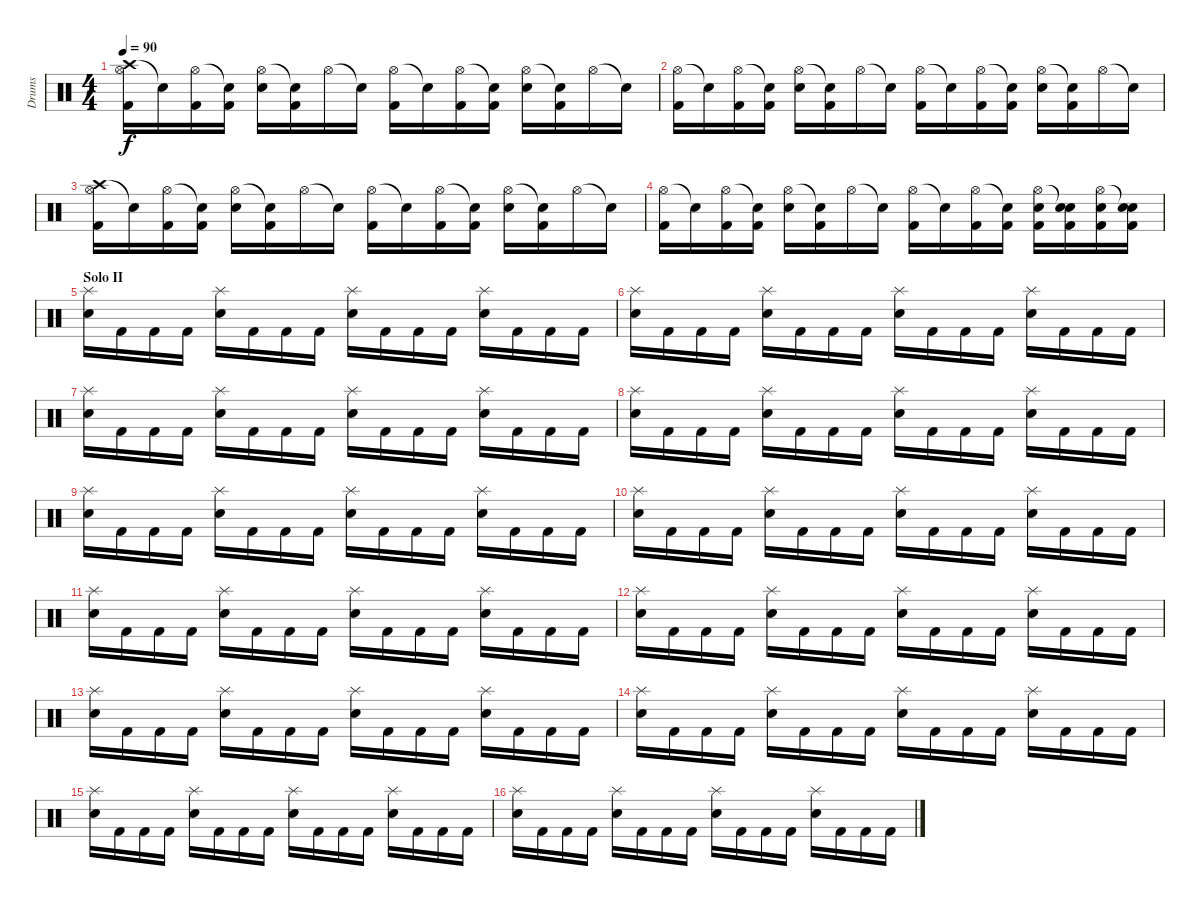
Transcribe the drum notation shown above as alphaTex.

\track ("Drums" "Drums") {instrument percussion}
\staff {score}
\articulation defaults
\ts (4 4)
\tempo 90
\clef neutral
\ks c
("Crash high (hit)" "Hi-Hat (open)" "Kick (hit) 2").16{dy f} "Snare (hit)"{t}.16 ("Hi-Hat (open)" "Kick (hit) 2").16 ("Snare (hit)"{t} "Kick (hit) 2").16 ("Hi-Hat (open)" "Electric Snare (hit)").16 ("Snare (hit)"{t} "Kick (hit) 2").16 "Hi-Hat (open)".16 "Snare (hit)"{t}.16 ("Hi-Hat (open)" "Kick (hit) 2").16 "Snare (hit)"{t}.16 ("Hi-Hat (open)" "Kick (hit) 2").16 ("Snare (hit)"{t} "Kick (hit) 2").16 ("Hi-Hat (open)" "Electric Snare (hit)").16 ("Snare (hit)"{t} "Kick (hit) 2").16 "Hi-Hat (open)".16 "Snare (hit)"{t}.16 |
("Hi-Hat (open)" "Kick (hit) 2").16 "Snare (hit)"{t}.16 ("Hi-Hat (open)" "Kick (hit) 2").16 ("Snare (hit)"{t} "Kick (hit) 2").16 ("Hi-Hat (open)" "Electric Snare (hit)").16 ("Snare (hit)"{t} "Kick (hit) 2").16 "Hi-Hat (open)".16 "Snare (hit)"{t}.16 ("Hi-Hat (open)" "Kick (hit) 2").16 "Snare (hit)"{t}.16 ("Hi-Hat (open)" "Kick (hit) 2").16 ("Snare (hit)"{t} "Kick (hit) 2").16 ("Hi-Hat (open)" "Electric Snare (hit)").16 ("Snare (hit)"{t} "Kick (hit) 2").16 "Hi-Hat (open)".16 "Snare (hit)"{t}.16 |
("Crash high (hit)" "Hi-Hat (open)" "Kick (hit) 2").16 "Snare (hit)"{t}.16 ("Hi-Hat (open)" "Kick (hit) 2").16 ("Snare (hit)"{t} "Kick (hit) 2").16 ("Hi-Hat (open)" "Electric Snare (hit)").16 ("Snare (hit)"{t} "Kick (hit) 2").16 "Hi-Hat (open)".16 "Snare (hit)"{t}.16 ("Hi-Hat (open)" "Kick (hit) 2").16 "Snare (hit)"{t}.16 ("Hi-Hat (open)" "Kick (hit) 2").16 ("Snare (hit)"{t} "Kick (hit) 2").16 ("Hi-Hat (open)" "Electric Snare (hit)").16 ("Snare (hit)"{t} "Kick (hit) 2").16 "Hi-Hat (open)".16 "Snare (hit)"{t}.16 |
("Hi-Hat (open)" "Kick (hit) 2").16 "Snare (hit)"{t}.16 ("Hi-Hat (open)" "Kick (hit) 2").16 ("Snare (hit)"{t} "Kick (hit) 2").16 ("Hi-Hat (open)" "Electric Snare (hit)").16 ("Snare (hit)"{t} "Kick (hit) 2").16 "Hi-Hat (open)".16 "Snare (hit)"{t}.16 ("Hi-Hat (open)" "Kick (hit) 2").16 "Snare (hit)"{t}.16 ("Hi-Hat (open)" "Kick (hit) 2").16 ("Snare (hit)"{t} "Kick (hit) 2").16 ("Hi-Hat (open)" "Electric Snare (hit)" "Kick (hit) 2").16 ("Snare (hit)"{t} "Electric Snare (hit)" "Kick (hit) 2").16 ("Hi-Hat (open)" "Electric Snare (hit)" "Kick (hit) 2").16 ("Snare (hit)"{t} "Electric Snare (hit)" "Kick (hit) 2").16 |
\section ("" "Solo II")
("Splash (hit)" "Electric Snare (hit)").16 "Kick (hit) 2".16 "Kick (hit) 2".16 "Kick (hit) 2".16 ("Splash (hit)" "Electric Snare (hit)").16 "Kick (hit) 2".16 "Kick (hit) 2".16 "Kick (hit) 2".16 ("Splash (hit)" "Electric Snare (hit)").16 "Kick (hit) 2".16 "Kick (hit) 2".16 "Kick (hit) 2".16 ("Splash (hit)" "Electric Snare (hit)").16 "Kick (hit) 2".16 "Kick (hit) 2".16 "Kick (hit) 2".16 |
("Splash (hit)" "Electric Snare (hit)").16 "Kick (hit) 2".16 "Kick (hit) 2".16 "Kick (hit) 2".16 ("Splash (hit)" "Electric Snare (hit)").16 "Kick (hit) 2".16 "Kick (hit) 2".16 "Kick (hit) 2".16 ("Splash (hit)" "Electric Snare (hit)").16 "Kick (hit) 2".16 "Kick (hit) 2".16 "Kick (hit) 2".16 ("Splash (hit)" "Electric Snare (hit)").16 "Kick (hit) 2".16 "Kick (hit) 2".16 "Kick (hit) 2".16 |
("Splash (hit)" "Electric Snare (hit)").16 "Kick (hit) 2".16 "Kick (hit) 2".16 "Kick (hit) 2".16 ("Splash (hit)" "Electric Snare (hit)").16 "Kick (hit) 2".16 "Kick (hit) 2".16 "Kick (hit) 2".16 ("Splash (hit)" "Electric Snare (hit)").16 "Kick (hit) 2".16 "Kick (hit) 2".16 "Kick (hit) 2".16 ("Splash (hit)" "Electric Snare (hit)").16 "Kick (hit) 2".16 "Kick (hit) 2".16 "Kick (hit) 2".16 |
("Splash (hit)" "Electric Snare (hit)").16 "Kick (hit) 2".16 "Kick (hit) 2".16 "Kick (hit) 2".16 ("Splash (hit)" "Electric Snare (hit)").16 "Kick (hit) 2".16 "Kick (hit) 2".16 "Kick (hit) 2".16 ("Splash (hit)" "Electric Snare (hit)").16 "Kick (hit) 2".16 "Kick (hit) 2".16 "Kick (hit) 2".16 ("Splash (hit)" "Electric Snare (hit)").16 "Kick (hit) 2".16 "Kick (hit) 2".16 "Kick (hit) 2".16 |
("Splash (hit)" "Electric Snare (hit)").16 "Kick (hit) 2".16 "Kick (hit) 2".16 "Kick (hit) 2".16 ("Splash (hit)" "Electric Snare (hit)").16 "Kick (hit) 2".16 "Kick (hit) 2".16 "Kick (hit) 2".16 ("Splash (hit)" "Electric Snare (hit)").16 "Kick (hit) 2".16 "Kick (hit) 2".16 "Kick (hit) 2".16 ("Splash (hit)" "Electric Snare (hit)").16 "Kick (hit) 2".16 "Kick (hit) 2".16 "Kick (hit) 2".16 |
("Splash (hit)" "Electric Snare (hit)").16 "Kick (hit) 2".16 "Kick (hit) 2".16 "Kick (hit) 2".16 ("Splash (hit)" "Electric Snare (hit)").16 "Kick (hit) 2".16 "Kick (hit) 2".16 "Kick (hit) 2".16 ("Splash (hit)" "Electric Snare (hit)").16 "Kick (hit) 2".16 "Kick (hit) 2".16 "Kick (hit) 2".16 ("Splash (hit)" "Electric Snare (hit)").16 "Kick (hit) 2".16 "Kick (hit) 2".16 "Kick (hit) 2".16 |
("Splash (hit)" "Electric Snare (hit)").16 "Kick (hit) 2".16 "Kick (hit) 2".16 "Kick (hit) 2".16 ("Splash (hit)" "Electric Snare (hit)").16 "Kick (hit) 2".16 "Kick (hit) 2".16 "Kick (hit) 2".16 ("Splash (hit)" "Electric Snare (hit)").16 "Kick (hit) 2".16 "Kick (hit) 2".16 "Kick (hit) 2".16 ("Splash (hit)" "Electric Snare (hit)").16 "Kick (hit) 2".16 "Kick (hit) 2".16 "Kick (hit) 2".16 |
("Splash (hit)" "Electric Snare (hit)").16 "Kick (hit) 2".16 "Kick (hit) 2".16 "Kick (hit) 2".16 ("Splash (hit)" "Electric Snare (hit)").16 "Kick (hit) 2".16 "Kick (hit) 2".16 "Kick (hit) 2".16 ("Splash (hit)" "Electric Snare (hit)").16 "Kick (hit) 2".16 "Kick (hit) 2".16 "Kick (hit) 2".16 ("Splash (hit)" "Electric Snare (hit)").16 "Kick (hit) 2".16 "Kick (hit) 2".16 "Kick (hit) 2".16 |
("Splash (hit)" "Electric Snare (hit)").16 "Kick (hit) 2".16 "Kick (hit) 2".16 "Kick (hit) 2".16 ("Splash (hit)" "Electric Snare (hit)").16 "Kick (hit) 2".16 "Kick (hit) 2".16 "Kick (hit) 2".16 ("Splash (hit)" "Electric Snare (hit)").16 "Kick (hit) 2".16 "Kick (hit) 2".16 "Kick (hit) 2".16 ("Splash (hit)" "Electric Snare (hit)").16 "Kick (hit) 2".16 "Kick (hit) 2".16 "Kick (hit) 2".16 |
("Splash (hit)" "Electric Snare (hit)").16 "Kick (hit) 2".16 "Kick (hit) 2".16 "Kick (hit) 2".16 ("Splash (hit)" "Electric Snare (hit)").16 "Kick (hit) 2".16 "Kick (hit) 2".16 "Kick (hit) 2".16 ("Splash (hit)" "Electric Snare (hit)").16 "Kick (hit) 2".16 "Kick (hit) 2".16 "Kick (hit) 2".16 ("Splash (hit)" "Electric Snare (hit)").16 "Kick (hit) 2".16 "Kick (hit) 2".16 "Kick (hit) 2".16 |
("Splash (hit)" "Electric Snare (hit)").16 "Kick (hit) 2".16 "Kick (hit) 2".16 "Kick (hit) 2".16 ("Splash (hit)" "Electric Snare (hit)").16 "Kick (hit) 2".16 "Kick (hit) 2".16 "Kick (hit) 2".16 ("Splash (hit)" "Electric Snare (hit)").16 "Kick (hit) 2".16 "Kick (hit) 2".16 "Kick (hit) 2".16 ("Splash (hit)" "Electric Snare (hit)").16 "Kick (hit) 2".16 "Kick (hit) 2".16 "Kick (hit) 2".16 |
("Splash (hit)" "Electric Snare (hit)").16 "Kick (hit) 2".16 "Kick (hit) 2".16 "Kick (hit) 2".16 ("Splash (hit)" "Electric Snare (hit)").16 "Kick (hit) 2".16 "Kick (hit) 2".16 "Kick (hit) 2".16 ("Splash (hit)" "Electric Snare (hit)").16 "Kick (hit) 2".16 "Kick (hit) 2".16 "Kick (hit) 2".16 ("Splash (hit)" "Electric Snare (hit)").16 "Kick (hit) 2".16 "Kick (hit) 2".16 "Kick (hit) 2".16
